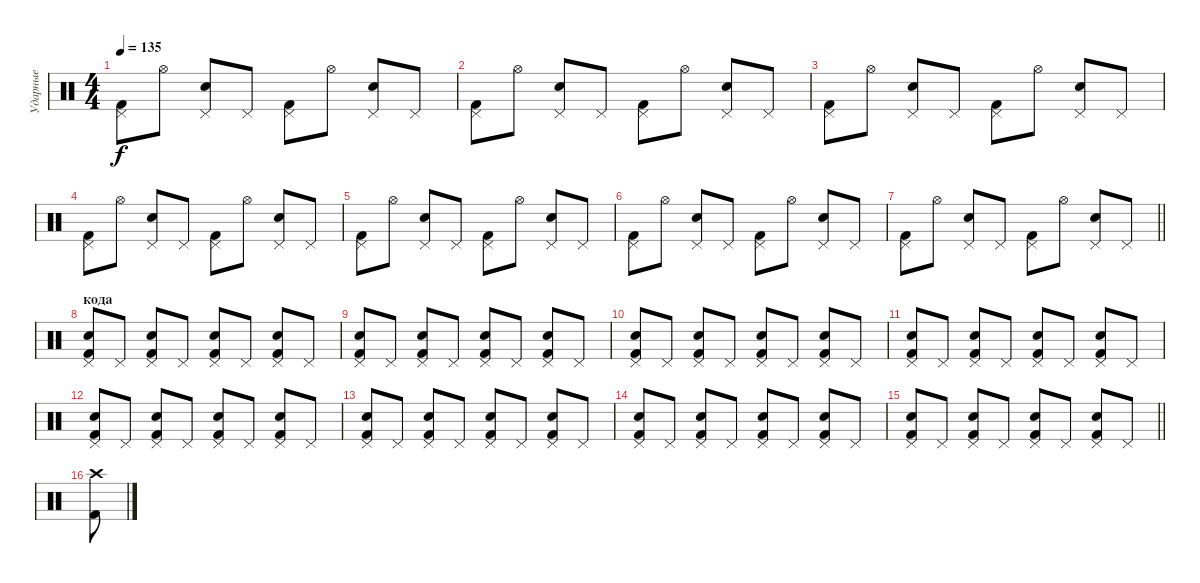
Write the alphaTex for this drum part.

\track ("Ударные" "Ударные") {instrument percussion}
\staff {score}
\articulation defaults
\ts (4 4)
\tempo 135
\clef neutral
\ks c
("Pedal Hi-Hat (hit)" "Kick (hit) 2").8{dy f} "Hi-Hat (open)".8 ("Pedal Hi-Hat (hit)" "Snare (hit) 2").8 "Pedal Hi-Hat (hit)".8 ("Pedal Hi-Hat (hit)" "Kick (hit) 2").8 "Hi-Hat (open)".8 ("Pedal Hi-Hat (hit)" "Snare (hit) 2").8 "Pedal Hi-Hat (hit)".8 |
("Pedal Hi-Hat (hit)" "Kick (hit) 2").8 "Hi-Hat (open)".8 ("Pedal Hi-Hat (hit)" "Snare (hit) 2").8 "Pedal Hi-Hat (hit)".8 ("Pedal Hi-Hat (hit)" "Kick (hit) 2").8 "Hi-Hat (open)".8 ("Pedal Hi-Hat (hit)" "Snare (hit) 2").8 "Pedal Hi-Hat (hit)".8 |
("Pedal Hi-Hat (hit)" "Kick (hit) 2").8 "Hi-Hat (open)".8 ("Pedal Hi-Hat (hit)" "Snare (hit) 2").8 "Pedal Hi-Hat (hit)".8 ("Pedal Hi-Hat (hit)" "Kick (hit) 2").8 "Hi-Hat (open)".8 ("Pedal Hi-Hat (hit)" "Snare (hit) 2").8 "Pedal Hi-Hat (hit)".8 |
("Pedal Hi-Hat (hit)" "Kick (hit) 2").8 "Hi-Hat (open)".8 ("Pedal Hi-Hat (hit)" "Snare (hit) 2").8 "Pedal Hi-Hat (hit)".8 ("Pedal Hi-Hat (hit)" "Kick (hit) 2").8 "Hi-Hat (open)".8 ("Pedal Hi-Hat (hit)" "Snare (hit) 2").8 "Pedal Hi-Hat (hit)".8 |
("Pedal Hi-Hat (hit)" "Kick (hit) 2").8 "Hi-Hat (open)".8 ("Pedal Hi-Hat (hit)" "Snare (hit) 2").8 "Pedal Hi-Hat (hit)".8 ("Pedal Hi-Hat (hit)" "Kick (hit) 2").8 "Hi-Hat (open)".8 ("Pedal Hi-Hat (hit)" "Snare (hit) 2").8 "Pedal Hi-Hat (hit)".8 |
("Pedal Hi-Hat (hit)" "Kick (hit) 2").8 "Hi-Hat (open)".8 ("Pedal Hi-Hat (hit)" "Snare (hit) 2").8 "Pedal Hi-Hat (hit)".8 ("Pedal Hi-Hat (hit)" "Kick (hit) 2").8 "Hi-Hat (open)".8 ("Pedal Hi-Hat (hit)" "Snare (hit) 2").8 "Pedal Hi-Hat (hit)".8 |
\barLineRight lightlight
("Pedal Hi-Hat (hit)" "Kick (hit) 2").8 "Hi-Hat (open)".8 ("Pedal Hi-Hat (hit)" "Snare (hit) 2").8 "Pedal Hi-Hat (hit)".8 ("Pedal Hi-Hat (hit)" "Kick (hit) 2").8 "Hi-Hat (open)".8 ("Pedal Hi-Hat (hit)" "Snare (hit) 2").8 "Pedal Hi-Hat (hit)".8 |
\section ("" "кода")
("Pedal Hi-Hat (hit)" "Snare (hit) 2" "Kick (hit) 2").8 "Pedal Hi-Hat (hit)".8 ("Pedal Hi-Hat (hit)" "Snare (hit) 2" "Kick (hit) 2").8 "Pedal Hi-Hat (hit)".8 ("Pedal Hi-Hat (hit)" "Snare (hit) 2" "Kick (hit) 2").8 "Pedal Hi-Hat (hit)".8 ("Pedal Hi-Hat (hit)" "Snare (hit) 2" "Kick (hit) 2").8 "Pedal Hi-Hat (hit)".8 |
("Pedal Hi-Hat (hit)" "Snare (hit) 2" "Kick (hit) 2").8 "Pedal Hi-Hat (hit)".8 ("Pedal Hi-Hat (hit)" "Snare (hit) 2" "Kick (hit) 2").8 "Pedal Hi-Hat (hit)".8 ("Pedal Hi-Hat (hit)" "Snare (hit) 2" "Kick (hit) 2").8 "Pedal Hi-Hat (hit)".8 ("Pedal Hi-Hat (hit)" "Snare (hit) 2" "Kick (hit) 2").8 "Pedal Hi-Hat (hit)".8 |
("Pedal Hi-Hat (hit)" "Snare (hit) 2" "Kick (hit) 2").8 "Pedal Hi-Hat (hit)".8 ("Pedal Hi-Hat (hit)" "Snare (hit) 2" "Kick (hit) 2").8 "Pedal Hi-Hat (hit)".8 ("Pedal Hi-Hat (hit)" "Snare (hit) 2" "Kick (hit) 2").8 "Pedal Hi-Hat (hit)".8 ("Pedal Hi-Hat (hit)" "Snare (hit) 2" "Kick (hit) 2").8 "Pedal Hi-Hat (hit)".8 |
("Pedal Hi-Hat (hit)" "Snare (hit) 2" "Kick (hit) 2").8 "Pedal Hi-Hat (hit)".8 ("Pedal Hi-Hat (hit)" "Snare (hit) 2" "Kick (hit) 2").8 "Pedal Hi-Hat (hit)".8 ("Pedal Hi-Hat (hit)" "Snare (hit) 2" "Kick (hit) 2").8 "Pedal Hi-Hat (hit)".8 ("Pedal Hi-Hat (hit)" "Snare (hit) 2" "Kick (hit) 2").8 "Pedal Hi-Hat (hit)".8 |
("Pedal Hi-Hat (hit)" "Snare (hit) 2" "Kick (hit) 2").8 "Pedal Hi-Hat (hit)".8 ("Pedal Hi-Hat (hit)" "Snare (hit) 2" "Kick (hit) 2").8 "Pedal Hi-Hat (hit)".8 ("Pedal Hi-Hat (hit)" "Snare (hit) 2" "Kick (hit) 2").8 "Pedal Hi-Hat (hit)".8 ("Pedal Hi-Hat (hit)" "Snare (hit) 2" "Kick (hit) 2").8 "Pedal Hi-Hat (hit)".8 |
("Pedal Hi-Hat (hit)" "Snare (hit) 2" "Kick (hit) 2").8 "Pedal Hi-Hat (hit)".8 ("Pedal Hi-Hat (hit)" "Snare (hit) 2" "Kick (hit) 2").8 "Pedal Hi-Hat (hit)".8 ("Pedal Hi-Hat (hit)" "Snare (hit) 2" "Kick (hit) 2").8 "Pedal Hi-Hat (hit)".8 ("Pedal Hi-Hat (hit)" "Snare (hit) 2" "Kick (hit) 2").8 "Pedal Hi-Hat (hit)".8 |
("Pedal Hi-Hat (hit)" "Snare (hit) 2" "Kick (hit) 2").8 "Pedal Hi-Hat (hit)".8 ("Pedal Hi-Hat (hit)" "Snare (hit) 2" "Kick (hit) 2").8 "Pedal Hi-Hat (hit)".8 ("Pedal Hi-Hat (hit)" "Snare (hit) 2" "Kick (hit) 2").8 "Pedal Hi-Hat (hit)".8 ("Pedal Hi-Hat (hit)" "Snare (hit) 2" "Kick (hit) 2").8 "Pedal Hi-Hat (hit)".8 |
\barLineRight lightlight
("Pedal Hi-Hat (hit)" "Snare (hit) 2" "Kick (hit) 2").8 "Pedal Hi-Hat (hit)".8 ("Pedal Hi-Hat (hit)" "Snare (hit) 2" "Kick (hit) 2").8 "Pedal Hi-Hat (hit)".8 ("Pedal Hi-Hat (hit)" "Snare (hit) 2" "Kick (hit) 2").8 "Pedal Hi-Hat (hit)".8 ("Pedal Hi-Hat (hit)" "Snare (hit) 2" "Kick (hit) 2").8 "Pedal Hi-Hat (hit)".8 |
("Kick (hit) 2" "Crash high (hit)").8
